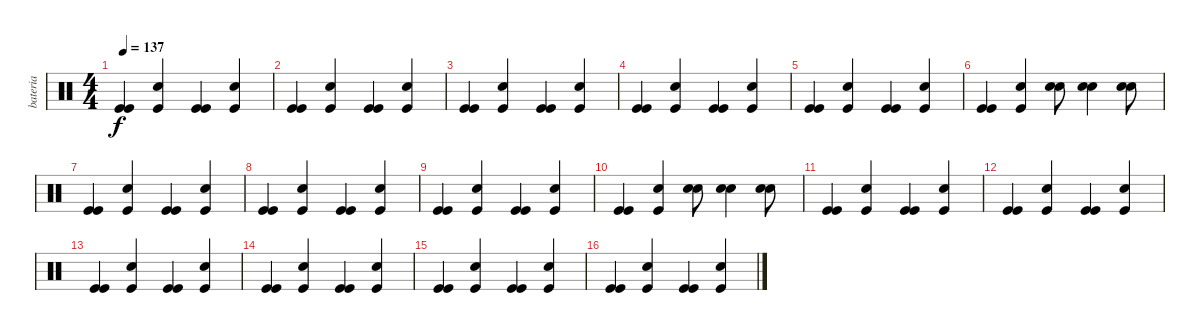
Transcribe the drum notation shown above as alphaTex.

\track ("bateria" "bateria") {instrument percussion}
\staff {score}
\articulation defaults
\ts (4 4)
\tempo 137
\clef neutral
\ks c
("Kick (hit)" "Kick (hit)").4{dy f} ("Kick (hit)" "Snare (hit) 2").4 ("Kick (hit)" "Kick (hit)").4 ("Snare (hit) 2" "Kick (hit)").4 |
("Kick (hit)" "Kick (hit)").4 ("Kick (hit)" "Snare (hit) 2").4 ("Kick (hit)" "Kick (hit)").4 ("Snare (hit) 2" "Kick (hit)").4 |
("Kick (hit)" "Kick (hit)").4 ("Kick (hit)" "Snare (hit) 2").4 ("Kick (hit)" "Kick (hit)").4 ("Snare (hit) 2" "Kick (hit)").4 |
("Kick (hit)" "Kick (hit)").4 ("Kick (hit)" "Snare (hit) 2").4 ("Kick (hit)" "Kick (hit)").4 ("Snare (hit) 2" "Kick (hit)").4 |
("Kick (hit)" "Kick (hit)").4 ("Kick (hit)" "Snare (hit) 2").4 ("Kick (hit)" "Kick (hit)").4 ("Snare (hit) 2" "Kick (hit)").4 |
("Kick (hit)" "Kick (hit)").4 ("Kick (hit)" "Snare (hit) 2").4 ("Snare (hit) 2" "Snare (hit) 2").8 ("Snare (hit) 2" "Snare (hit) 2").4 ("Snare (hit) 2" "Snare (hit) 2").8 |
("Kick (hit)" "Kick (hit)").4 ("Kick (hit)" "Snare (hit) 2").4 ("Kick (hit)" "Kick (hit)").4 ("Snare (hit) 2" "Kick (hit)").4 |
("Kick (hit)" "Kick (hit)").4 ("Kick (hit)" "Snare (hit) 2").4 ("Kick (hit)" "Kick (hit)").4 ("Snare (hit) 2" "Kick (hit)").4 |
("Kick (hit)" "Kick (hit)").4 ("Kick (hit)" "Snare (hit) 2").4 ("Kick (hit)" "Kick (hit)").4 ("Snare (hit) 2" "Kick (hit)").4 |
("Kick (hit)" "Kick (hit)").4 ("Kick (hit)" "Snare (hit) 2").4 ("Snare (hit) 2" "Snare (hit) 2").8 ("Snare (hit) 2" "Snare (hit) 2").4 ("Snare (hit) 2" "Snare (hit) 2").8 |
("Kick (hit)" "Kick (hit)").4 ("Kick (hit)" "Snare (hit) 2").4 ("Kick (hit)" "Kick (hit)").4 ("Snare (hit) 2" "Kick (hit)").4 |
("Kick (hit)" "Kick (hit)").4 ("Kick (hit)" "Snare (hit) 2").4 ("Kick (hit)" "Kick (hit)").4 ("Snare (hit) 2" "Kick (hit)").4 |
("Kick (hit)" "Kick (hit)").4 ("Kick (hit)" "Snare (hit) 2").4 ("Kick (hit)" "Kick (hit)").4 ("Snare (hit) 2" "Kick (hit)").4 |
("Kick (hit)" "Kick (hit)").4 ("Kick (hit)" "Snare (hit) 2").4 ("Kick (hit)" "Kick (hit)").4 ("Snare (hit) 2" "Kick (hit)").4 |
("Kick (hit)" "Kick (hit)").4 ("Kick (hit)" "Snare (hit) 2").4 ("Kick (hit)" "Kick (hit)").4 ("Snare (hit) 2" "Kick (hit)").4 |
("Kick (hit)" "Kick (hit)").4 ("Kick (hit)" "Snare (hit) 2").4 ("Kick (hit)" "Kick (hit)").4 ("Snare (hit) 2" "Kick (hit)").4
